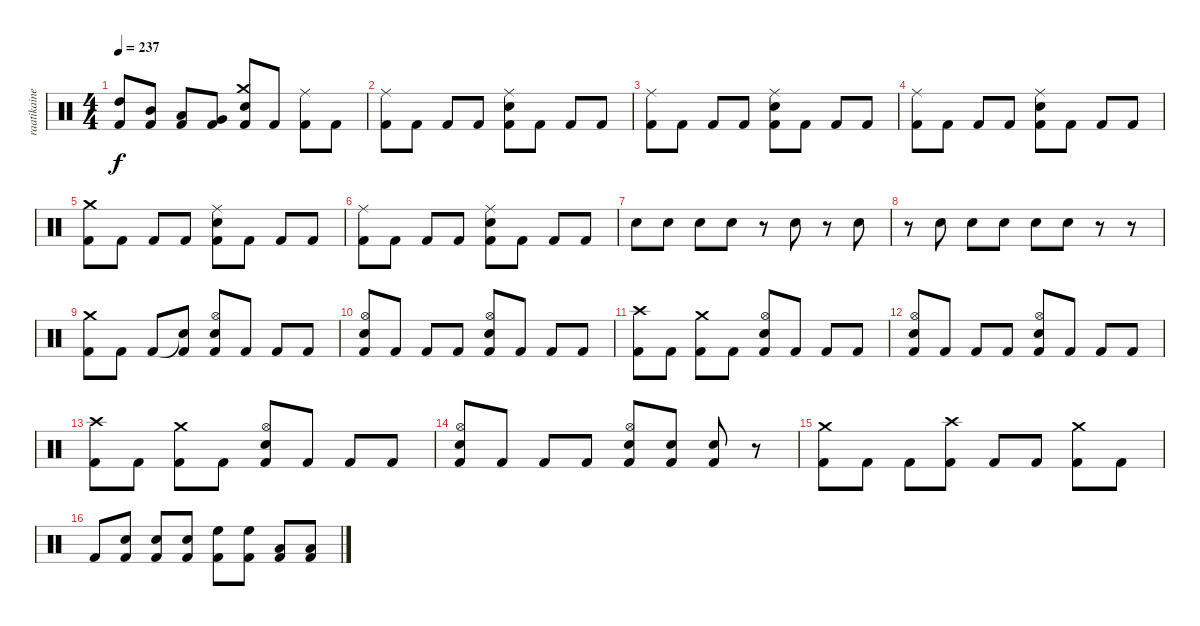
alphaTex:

\track ("raatikainen" "raatikaine") {instrument percussion}
\staff {score}
\articulation defaults
\ts (4 4)
\tempo 237
\clef neutral
\ks c
("High Tom (hit)" "Kick (hit) 2").8{dy f} ("Mid Tom (hit)" "Kick (hit) 2").8 ("Low Tom (hit)" "Kick (hit) 2").8 ("Very Low Tom (hit)" "Kick (hit) 2").8 ("Crash medium (hit)" "Snare (hit) 2" "Kick (hit) 2").8 "Kick (hit) 2".8 ("Ride (middle)" "Kick (hit) 2").8 "Kick (hit) 2".8 |
("Ride (middle)" "Kick (hit) 2").8 "Kick (hit) 2".8 "Kick (hit) 2".8 "Kick (hit) 2".8 ("Ride (middle)" "Snare (hit) 2" "Kick (hit) 2").8 "Kick (hit) 2".8 "Kick (hit) 2".8 "Kick (hit) 2".8 |
("Ride (middle)" "Kick (hit) 2").8 "Kick (hit) 2".8 "Kick (hit) 2".8 "Kick (hit) 2".8 ("Ride (middle)" "Snare (hit) 2" "Kick (hit) 2").8 "Kick (hit) 2".8 "Kick (hit) 2".8 "Kick (hit) 2".8 |
("Ride (middle)" "Kick (hit) 2").8 "Kick (hit) 2".8 "Kick (hit) 2".8 "Kick (hit) 2".8 ("Ride (middle)" "Snare (hit) 2" "Kick (hit) 2").8 "Kick (hit) 2".8 "Kick (hit) 2".8 "Kick (hit) 2".8 |
("Crash medium (hit)" "Kick (hit) 2").8 "Kick (hit) 2".8 "Kick (hit) 2".8 "Kick (hit) 2".8 ("Ride (middle)" "Snare (hit) 2" "Kick (hit) 2").8 "Kick (hit) 2".8 "Kick (hit) 2".8 "Kick (hit) 2".8 |
("Ride (middle)" "Kick (hit) 2").8 "Kick (hit) 2".8 "Kick (hit) 2".8 "Kick (hit) 2".8 ("Ride (middle)" "Snare (hit) 2" "Kick (hit) 2").8 "Kick (hit) 2".8 "Kick (hit) 2".8 "Kick (hit) 2".8 |
"Snare (hit) 2".8 "Snare (hit) 2".8 "Snare (hit) 2".8 "Snare (hit) 2".8 r.8 "Snare (hit) 2".8 r.8 "Snare (hit) 2".8 |
r.8 "Snare (hit) 2".8 "Snare (hit) 2".8 "Snare (hit) 2".8 "Snare (hit) 2".8 "Snare (hit) 2".8 r.8 r.8 |
("Crash medium (hit)" "Kick (hit) 2").8 "Kick (hit) 2".8 "Kick (hit) 2".8 ("Snare (hit)"{t} "Kick (hit) 2").8 ("Hi-Hat (open)" "Electric Snare (hit)" "Kick (hit) 2").8 "Kick (hit) 2".8 "Kick (hit) 2".8 "Kick (hit) 2".8 |
("Hi-Hat (open)" "Electric Snare (hit)" "Kick (hit) 2").8 "Kick (hit) 2".8 "Kick (hit) 2".8 "Kick (hit) 2".8 ("Hi-Hat (open)" "Electric Snare (hit)" "Kick (hit) 2").8 "Kick (hit) 2".8 "Kick (hit) 2".8 "Kick (hit) 2".8 |
("Crash high (hit)" "Kick (hit) 2").8 "Kick (hit) 2".8 ("Crash medium (hit)" "Kick (hit) 2").8 "Kick (hit) 2".8 ("Hi-Hat (open)" "Electric Snare (hit)" "Kick (hit) 2").8 "Kick (hit) 2".8 "Kick (hit) 2".8 "Kick (hit) 2".8 |
("Hi-Hat (open)" "Electric Snare (hit)" "Kick (hit) 2").8 "Kick (hit) 2".8 "Kick (hit) 2".8 "Kick (hit) 2".8 ("Hi-Hat (open)" "Electric Snare (hit)" "Kick (hit) 2").8 "Kick (hit) 2".8 "Kick (hit) 2".8 "Kick (hit) 2".8 |
("Crash high (hit)" "Kick (hit) 2").8 "Kick (hit) 2".8 ("Crash medium (hit)" "Kick (hit) 2").8 "Kick (hit) 2".8 ("Hi-Hat (open)" "Electric Snare (hit)" "Kick (hit) 2").8 "Kick (hit) 2".8 "Kick (hit) 2".8 "Kick (hit) 2".8 |
("Hi-Hat (open)" "Electric Snare (hit)" "Kick (hit) 2").8 "Kick (hit) 2".8 "Kick (hit) 2".8 "Kick (hit) 2".8 ("Hi-Hat (open)" "Electric Snare (hit)" "Kick (hit) 2").8 ("Electric Snare (hit)" "Kick (hit) 2").8 ("Electric Snare (hit)" "Kick (hit) 2").8 r.8 |
("Crash medium (hit)" "Kick (hit) 2").8 "Kick (hit) 2".8 "Kick (hit) 2".8 ("Crash high (hit)" "Kick (hit) 2").8 "Kick (hit) 2".8 "Kick (hit) 2".8 ("Crash medium (hit)" "Kick (hit) 2").8 "Kick (hit) 2".8 |
"Kick (hit) 2".8 ("Electric Snare (hit)" "Kick (hit) 2").8 ("Electric Snare (hit)" "Kick (hit) 2").8 ("Electric Snare (hit)" "Kick (hit) 2").8 ("High Floor Tom (hit)" "Kick (hit) 2").8 ("High Floor Tom (hit)" "Kick (hit) 2").8 ("Low Tom (hit)" "Kick (hit) 2").8 ("Low Tom (hit)" "Kick (hit) 2").8
